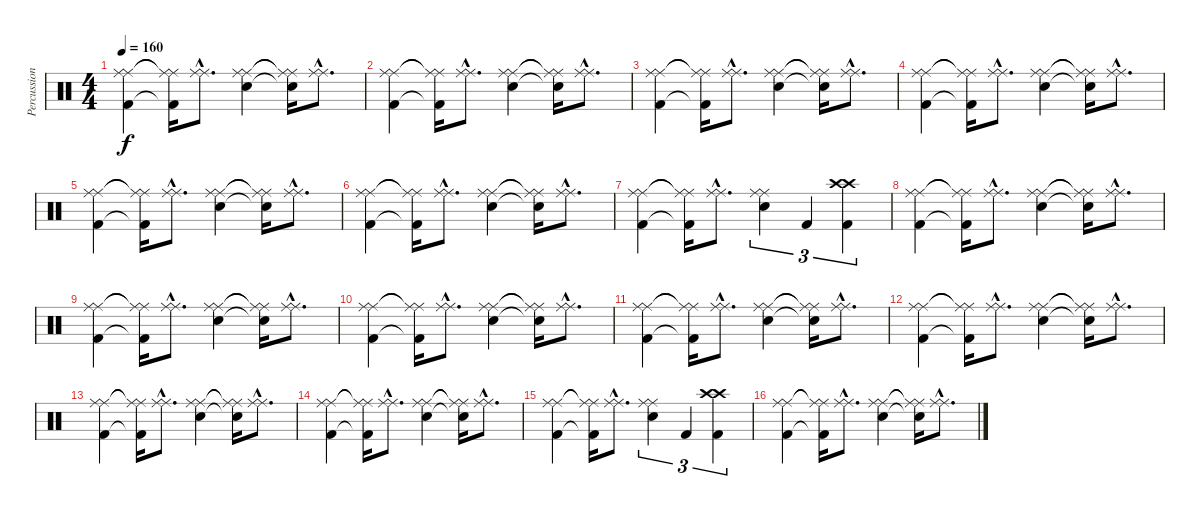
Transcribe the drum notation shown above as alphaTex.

\track ("Percussioni" "Percussion") {instrument percussion}
\staff {score}
\articulation defaults
\ts (4 4)
\tempo 160
\clef neutral
\ks c
("Ride (middle)" "Ride (middle)" "Kick (hit) 2").4{dy f} ("Ride (middle)"{t} "Ride (middle)"{t} "Kick (hit) 2"{t}).16 ("Ride (middle)"{hac} "Ride (middle)"{hac}).8{d} ("Ride (middle)" "Ride (middle)" "Electric Snare (hit)").4 ("Ride (middle)"{t} "Ride (middle)"{t} "Electric Snare (hit)"{t}).16 ("Ride (middle)"{hac} "Ride (middle)"{hac}).8{d} |
("Ride (middle)" "Ride (middle)" "Kick (hit) 2").4 ("Ride (middle)"{t} "Ride (middle)"{t} "Kick (hit) 2"{t}).16 ("Ride (middle)"{hac} "Ride (middle)"{hac}).8{d} ("Ride (middle)" "Ride (middle)" "Electric Snare (hit)").4 ("Ride (middle)"{t} "Ride (middle)"{t} "Electric Snare (hit)"{t}).16 ("Ride (middle)"{hac} "Ride (middle)"{hac}).8{d} |
("Ride (middle)" "Ride (middle)" "Kick (hit) 2").4 ("Ride (middle)"{t} "Ride (middle)"{t} "Kick (hit) 2"{t}).16 ("Ride (middle)"{hac} "Ride (middle)"{hac}).8{d} ("Ride (middle)" "Ride (middle)" "Electric Snare (hit)").4 ("Ride (middle)"{t} "Ride (middle)"{t} "Electric Snare (hit)"{t}).16 ("Ride (middle)"{hac} "Ride (middle)"{hac}).8{d} |
("Ride (middle)" "Ride (middle)" "Kick (hit) 2").4 ("Ride (middle)"{t} "Ride (middle)"{t} "Kick (hit) 2"{t}).16 ("Ride (middle)"{hac} "Ride (middle)"{hac}).8{d} ("Ride (middle)" "Ride (middle)" "Electric Snare (hit)").4 ("Ride (middle)"{t} "Ride (middle)"{t} "Electric Snare (hit)"{t}).16 ("Ride (middle)"{hac} "Ride (middle)"{hac}).8{d} |
("Ride (middle)" "Ride (middle)" "Kick (hit) 2").4 ("Ride (middle)"{t} "Ride (middle)"{t} "Kick (hit) 2"{t}).16 ("Ride (middle)"{hac} "Ride (middle)"{hac}).8{d} ("Ride (middle)" "Ride (middle)" "Electric Snare (hit)").4 ("Ride (middle)"{t} "Ride (middle)"{t} "Electric Snare (hit)"{t}).16 ("Ride (middle)"{hac} "Ride (middle)"{hac}).8{d} |
("Ride (middle)" "Ride (middle)" "Kick (hit) 2").4 ("Ride (middle)"{t} "Ride (middle)"{t} "Kick (hit) 2"{t}).16 ("Ride (middle)"{hac} "Ride (middle)"{hac}).8{d} ("Ride (middle)" "Ride (middle)" "Electric Snare (hit)").4 ("Ride (middle)"{t} "Ride (middle)"{t} "Electric Snare (hit)"{t}).16 ("Ride (middle)"{hac} "Ride (middle)"{hac}).8{d} |
("Ride (middle)" "Ride (middle)" "Kick (hit) 2").4 ("Ride (middle)"{t} "Ride (middle)"{t} "Kick (hit) 2"{t}).16 ("Ride (middle)"{hac} "Ride (middle)"{hac}).8{d} ("Ride (middle)" "Ride (middle)" "Electric Snare (hit)").4{tu (3 2)} "Kick (hit) 2".4{tu (3 2)} ("Crash high (hit)" "Crash high (hit)" "Kick (hit) 2").4{tu (3 2)} |
("Ride (middle)" "Ride (middle)" "Kick (hit) 2").4 ("Ride (middle)"{t} "Ride (middle)"{t} "Kick (hit) 2"{t}).16 ("Ride (middle)"{hac} "Ride (middle)"{hac}).8{d} ("Ride (middle)" "Ride (middle)" "Electric Snare (hit)").4 ("Ride (middle)"{t} "Ride (middle)"{t} "Electric Snare (hit)"{t}).16 ("Ride (middle)"{hac} "Ride (middle)"{hac}).8{d} |
("Ride (middle)" "Ride (middle)" "Kick (hit) 2").4 ("Ride (middle)"{t} "Ride (middle)"{t} "Kick (hit) 2"{t}).16 ("Ride (middle)"{hac} "Ride (middle)"{hac}).8{d} ("Ride (middle)" "Ride (middle)" "Electric Snare (hit)").4 ("Ride (middle)"{t} "Ride (middle)"{t} "Electric Snare (hit)"{t}).16 ("Ride (middle)"{hac} "Ride (middle)"{hac}).8{d} |
("Ride (middle)" "Ride (middle)" "Kick (hit) 2").4 ("Ride (middle)"{t} "Ride (middle)"{t} "Kick (hit) 2"{t}).16 ("Ride (middle)"{hac} "Ride (middle)"{hac}).8{d} ("Ride (middle)" "Ride (middle)" "Electric Snare (hit)").4 ("Ride (middle)"{t} "Ride (middle)"{t} "Electric Snare (hit)"{t}).16 ("Ride (middle)"{hac} "Ride (middle)"{hac}).8{d} |
("Ride (middle)" "Ride (middle)" "Kick (hit) 2").4 ("Ride (middle)"{t} "Ride (middle)"{t} "Kick (hit) 2"{t}).16 ("Ride (middle)"{hac} "Ride (middle)"{hac}).8{d} ("Ride (middle)" "Ride (middle)" "Electric Snare (hit)").4 ("Ride (middle)"{t} "Ride (middle)"{t} "Electric Snare (hit)"{t}).16 ("Ride (middle)"{hac} "Ride (middle)"{hac}).8{d} |
("Ride (middle)" "Ride (middle)" "Kick (hit) 2").4 ("Ride (middle)"{t} "Ride (middle)"{t} "Kick (hit) 2"{t}).16 ("Ride (middle)"{hac} "Ride (middle)"{hac}).8{d} ("Ride (middle)" "Ride (middle)" "Electric Snare (hit)").4 ("Ride (middle)"{t} "Ride (middle)"{t} "Electric Snare (hit)"{t}).16 ("Ride (middle)"{hac} "Ride (middle)"{hac}).8{d} |
("Ride (middle)" "Ride (middle)" "Kick (hit) 2").4 ("Ride (middle)"{t} "Ride (middle)"{t} "Kick (hit) 2"{t}).16 ("Ride (middle)"{hac} "Ride (middle)"{hac}).8{d} ("Ride (middle)" "Ride (middle)" "Electric Snare (hit)").4 ("Ride (middle)"{t} "Ride (middle)"{t} "Electric Snare (hit)"{t}).16 ("Ride (middle)"{hac} "Ride (middle)"{hac}).8{d} |
("Ride (middle)" "Ride (middle)" "Kick (hit) 2").4 ("Ride (middle)"{t} "Ride (middle)"{t} "Kick (hit) 2"{t}).16 ("Ride (middle)"{hac} "Ride (middle)"{hac}).8{d} ("Ride (middle)" "Ride (middle)" "Electric Snare (hit)").4 ("Ride (middle)"{t} "Ride (middle)"{t} "Electric Snare (hit)"{t}).16 ("Ride (middle)"{hac} "Ride (middle)"{hac}).8{d} |
("Ride (middle)" "Ride (middle)" "Kick (hit) 2").4 ("Ride (middle)"{t} "Ride (middle)"{t} "Kick (hit) 2"{t}).16 ("Ride (middle)"{hac} "Ride (middle)"{hac}).8{d} ("Ride (middle)" "Ride (middle)" "Electric Snare (hit)").4{tu (3 2)} "Kick (hit) 2".4{tu (3 2)} ("Crash high (hit)" "Crash high (hit)" "Kick (hit) 2").4{tu (3 2)} |
("Ride (middle)" "Ride (middle)" "Kick (hit) 2").4 ("Ride (middle)"{t} "Ride (middle)"{t} "Kick (hit) 2"{t}).16 ("Ride (middle)"{hac} "Ride (middle)"{hac}).8{d} ("Ride (middle)" "Ride (middle)" "Electric Snare (hit)").4 ("Ride (middle)"{t} "Ride (middle)"{t} "Electric Snare (hit)"{t}).16 ("Ride (middle)"{hac} "Ride (middle)"{hac}).8{d}
